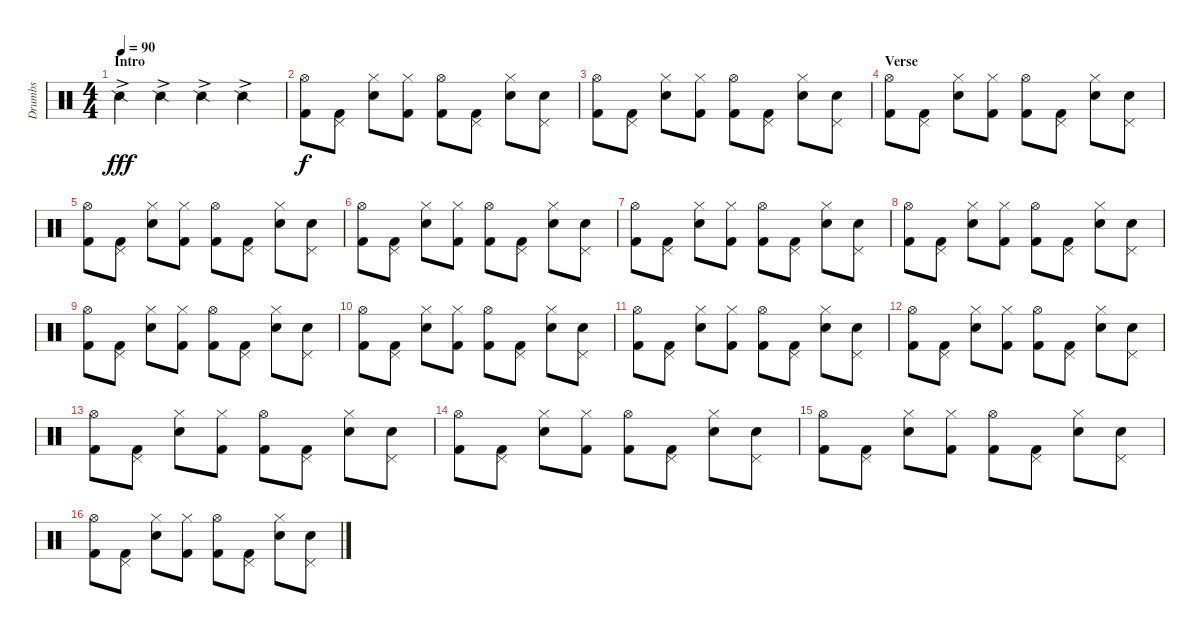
\track ("Drumbs" "Drumbs") {instrument percussion}
\staff {score}
\articulation defaults
\ts (4 4)
\section ("" "Intro")
\tempo 90
\clef neutral
\ks c "Snare (side stick) 2"{ac}.4{dy fff} "Snare (side stick) 2"{ac}.4 "Snare (side stick) 2"{ac}.4 "Snare (side stick) 2"{ac}.4
|
("Hi-Hat (open)" "Kick (hit) 2").8{dy f} ("Pedal Hi-Hat (hit)" "Kick (hit) 2").8 ("Hi-Hat (closed)" "Snare (hit) 2").8 ("Hi-Hat (closed)" "Kick (hit) 2").8 ("Hi-Hat (open)" "Kick (hit) 2").8 ("Pedal Hi-Hat (hit)" "Kick (hit) 2").8 ("Hi-Hat (closed)" "Snare (hit) 2").8 ("Pedal Hi-Hat (hit)" "Snare (hit) 2").8 |
("Hi-Hat (open)" "Kick (hit) 2").8 ("Pedal Hi-Hat (hit)" "Kick (hit) 2").8 ("Hi-Hat (closed)" "Snare (hit) 2").8 ("Hi-Hat (closed)" "Kick (hit) 2").8 ("Hi-Hat (open)" "Kick (hit) 2").8 ("Pedal Hi-Hat (hit)" "Kick (hit) 2").8 ("Hi-Hat (closed)" "Snare (hit) 2").8 ("Pedal Hi-Hat (hit)" "Snare (hit) 2").8 |
\section ("" "Verse")
("Hi-Hat (open)" "Kick (hit) 2").8 ("Pedal Hi-Hat (hit)" "Kick (hit) 2").8 ("Hi-Hat (closed)" "Snare (hit) 2").8 ("Hi-Hat (closed)" "Kick (hit) 2").8 ("Hi-Hat (open)" "Kick (hit) 2").8 ("Pedal Hi-Hat (hit)" "Kick (hit) 2").8 ("Hi-Hat (closed)" "Snare (hit) 2").8 ("Pedal Hi-Hat (hit)" "Snare (hit) 2").8 |
("Hi-Hat (open)" "Kick (hit) 2").8 ("Pedal Hi-Hat (hit)" "Kick (hit) 2").8 ("Hi-Hat (closed)" "Snare (hit) 2").8 ("Hi-Hat (closed)" "Kick (hit) 2").8 ("Hi-Hat (open)" "Kick (hit) 2").8 ("Pedal Hi-Hat (hit)" "Kick (hit) 2").8 ("Hi-Hat (closed)" "Snare (hit) 2").8 ("Pedal Hi-Hat (hit)" "Snare (hit) 2").8 |
("Hi-Hat (open)" "Kick (hit) 2").8 ("Pedal Hi-Hat (hit)" "Kick (hit) 2").8 ("Hi-Hat (closed)" "Snare (hit) 2").8 ("Hi-Hat (closed)" "Kick (hit) 2").8 ("Hi-Hat (open)" "Kick (hit) 2").8 ("Pedal Hi-Hat (hit)" "Kick (hit) 2").8 ("Hi-Hat (closed)" "Snare (hit) 2").8 ("Pedal Hi-Hat (hit)" "Snare (hit) 2").8 |
("Hi-Hat (open)" "Kick (hit) 2").8 ("Pedal Hi-Hat (hit)" "Kick (hit) 2").8 ("Hi-Hat (closed)" "Snare (hit) 2").8 ("Hi-Hat (closed)" "Kick (hit) 2").8 ("Hi-Hat (open)" "Kick (hit) 2").8 ("Pedal Hi-Hat (hit)" "Kick (hit) 2").8 ("Hi-Hat (closed)" "Snare (hit) 2").8 ("Pedal Hi-Hat (hit)" "Snare (hit) 2").8 |
("Hi-Hat (open)" "Kick (hit) 2").8 ("Pedal Hi-Hat (hit)" "Kick (hit) 2").8 ("Hi-Hat (closed)" "Snare (hit) 2").8 ("Hi-Hat (closed)" "Kick (hit) 2").8 ("Hi-Hat (open)" "Kick (hit) 2").8 ("Pedal Hi-Hat (hit)" "Kick (hit) 2").8 ("Hi-Hat (closed)" "Snare (hit) 2").8 ("Pedal Hi-Hat (hit)" "Snare (hit) 2").8 |
("Hi-Hat (open)" "Kick (hit) 2").8 ("Pedal Hi-Hat (hit)" "Kick (hit) 2").8 ("Hi-Hat (closed)" "Snare (hit) 2").8 ("Hi-Hat (closed)" "Kick (hit) 2").8 ("Hi-Hat (open)" "Kick (hit) 2").8 ("Pedal Hi-Hat (hit)" "Kick (hit) 2").8 ("Hi-Hat (closed)" "Snare (hit) 2").8 ("Pedal Hi-Hat (hit)" "Snare (hit) 2").8 |
("Hi-Hat (open)" "Kick (hit) 2").8 ("Pedal Hi-Hat (hit)" "Kick (hit) 2").8 ("Hi-Hat (closed)" "Snare (hit) 2").8 ("Hi-Hat (closed)" "Kick (hit) 2").8 ("Hi-Hat (open)" "Kick (hit) 2").8 ("Pedal Hi-Hat (hit)" "Kick (hit) 2").8 ("Hi-Hat (closed)" "Snare (hit) 2").8 ("Pedal Hi-Hat (hit)" "Snare (hit) 2").8 |
("Hi-Hat (open)" "Kick (hit) 2").8 ("Pedal Hi-Hat (hit)" "Kick (hit) 2").8 ("Hi-Hat (closed)" "Snare (hit) 2").8 ("Hi-Hat (closed)" "Kick (hit) 2").8 ("Hi-Hat (open)" "Kick (hit) 2").8 ("Pedal Hi-Hat (hit)" "Kick (hit) 2").8 ("Hi-Hat (closed)" "Snare (hit) 2").8 ("Pedal Hi-Hat (hit)" "Snare (hit) 2").8 |
("Hi-Hat (open)" "Kick (hit) 2").8 ("Pedal Hi-Hat (hit)" "Kick (hit) 2").8 ("Hi-Hat (closed)" "Snare (hit) 2").8 ("Hi-Hat (closed)" "Kick (hit) 2").8 ("Hi-Hat (open)" "Kick (hit) 2").8 ("Pedal Hi-Hat (hit)" "Kick (hit) 2").8 ("Hi-Hat (closed)" "Snare (hit) 2").8 ("Pedal Hi-Hat (hit)" "Snare (hit) 2").8 |
("Hi-Hat (open)" "Kick (hit) 2").8 ("Pedal Hi-Hat (hit)" "Kick (hit) 2").8 ("Hi-Hat (closed)" "Snare (hit) 2").8 ("Hi-Hat (closed)" "Kick (hit) 2").8 ("Hi-Hat (open)" "Kick (hit) 2").8 ("Pedal Hi-Hat (hit)" "Kick (hit) 2").8 ("Hi-Hat (closed)" "Snare (hit) 2").8 ("Pedal Hi-Hat (hit)" "Snare (hit) 2").8 |
("Hi-Hat (open)" "Kick (hit) 2").8 ("Pedal Hi-Hat (hit)" "Kick (hit) 2").8 ("Hi-Hat (closed)" "Snare (hit) 2").8 ("Hi-Hat (closed)" "Kick (hit) 2").8 ("Hi-Hat (open)" "Kick (hit) 2").8 ("Pedal Hi-Hat (hit)" "Kick (hit) 2").8 ("Hi-Hat (closed)" "Snare (hit) 2").8 ("Pedal Hi-Hat (hit)" "Snare (hit) 2").8 |
("Hi-Hat (open)" "Kick (hit) 2").8 ("Pedal Hi-Hat (hit)" "Kick (hit) 2").8 ("Hi-Hat (closed)" "Snare (hit) 2").8 ("Hi-Hat (closed)" "Kick (hit) 2").8 ("Hi-Hat (open)" "Kick (hit) 2").8 ("Pedal Hi-Hat (hit)" "Kick (hit) 2").8 ("Hi-Hat (closed)" "Snare (hit) 2").8 ("Pedal Hi-Hat (hit)" "Snare (hit) 2").8 |
("Hi-Hat (open)" "Kick (hit) 2").8 ("Pedal Hi-Hat (hit)" "Kick (hit) 2").8 ("Hi-Hat (closed)" "Snare (hit) 2").8 ("Hi-Hat (closed)" "Kick (hit) 2").8 ("Hi-Hat (open)" "Kick (hit) 2").8 ("Pedal Hi-Hat (hit)" "Kick (hit) 2").8 ("Hi-Hat (closed)" "Snare (hit) 2").8 ("Pedal Hi-Hat (hit)" "Snare (hit) 2").8
